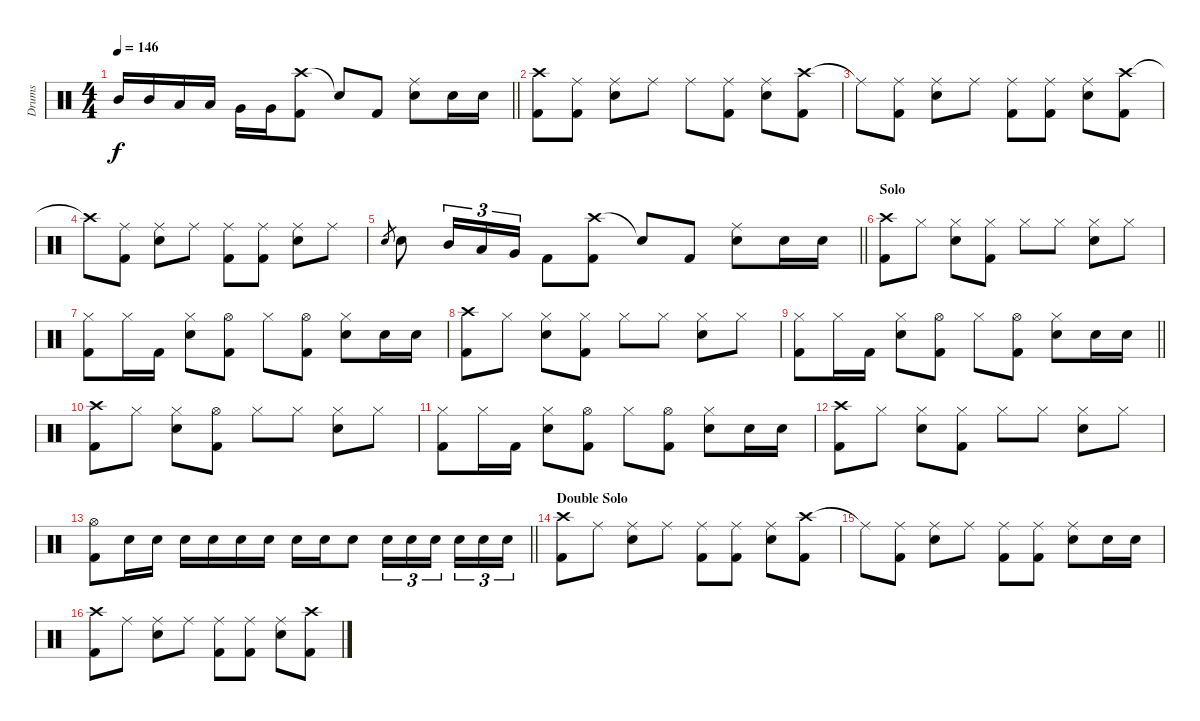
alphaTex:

\track ("Drums" "Drums") {instrument percussion}
\staff {score}
\articulation defaults
\ts (4 4)
\tempo 146
\clef neutral
\barLineRight lightlight
\ks c "Mid Tom (hit)".16{dy f} "Mid Tom (hit)".16 "Low Tom (hit)".16 "Low Tom (hit)".16 "Very Low Tom (hit)".16 "Very Low Tom (hit)".16
("Crash high (hit)" "Kick (hit) 2").8 "Snare (hit)"{t}.8 "Kick (hit) 2".8 ("Ride (middle)" "Snare (hit) 2").8 "Snare (hit) 2".16 "Snare (hit) 2".16 |
("Crash high (hit)" "Kick (hit) 2").8 ("Ride (middle)" "Kick (hit) 2").8 ("Ride (middle)" "Snare (hit) 2").8 "Ride (middle)".8 "Ride (middle)".8 ("Ride (middle)" "Kick (hit) 2").8 ("Ride (middle)" "Snare (hit) 2").8 ("Crash high (hit)" "Kick (hit) 2").8 |
"Ride (middle)"{t}.8 ("Ride (middle)" "Kick (hit) 2").8 ("Ride (middle)" "Snare (hit) 2").8 "Ride (middle)".8 ("Ride (middle)" "Kick (hit) 2").8 ("Ride (middle)" "Kick (hit) 2").8 ("Ride (middle)" "Snare (hit) 2").8 ("Crash high (hit)" "Kick (hit) 2").8 |
"Crash high (hit)"{t}.8 ("Ride (middle)" "Kick (hit) 2").8 ("Ride (middle)" "Snare (hit) 2").8 "Ride (middle)".8 ("Ride (middle)" "Kick (hit) 2").8 ("Ride (middle)" "Kick (hit) 2").8 ("Ride (middle)" "Snare (hit) 2").8 "Ride (middle)".8 |
\barLineRight lightlight "Snare (hit) 2".8{gr} "Snare (hit) 2".8 "Mid Tom (hit)".16{tu (3 2)} "Low Tom (hit)".16{tu (3 2)} "Very Low Tom (hit)".16{tu (3 2)} "Kick (hit) 2".8
("Crash high (hit)" "Kick (hit) 2").8 "Snare (hit)"{t}.8 "Kick (hit) 2".8 ("Ride (middle)" "Snare (hit) 2").8 "Snare (hit) 2".16 "Snare (hit) 2".16 |
\section ("" "Solo")
("Crash high (hit)" "Kick (hit) 2").8 "Hi-Hat (closed)".8 ("Hi-Hat (closed)" "Snare (hit) 2").8 ("Hi-Hat (closed)" "Kick (hit) 2").8 "Hi-Hat (closed)".8 "Hi-Hat (closed)".8 ("Hi-Hat (closed)" "Snare (hit) 2").8 "Hi-Hat (closed)".8 |
("Hi-Hat (closed)" "Kick (hit) 2").8 "Hi-Hat (closed)".16 "Kick (hit) 2".16 ("Hi-Hat (closed)" "Snare (hit) 2").8 ("Hi-Hat (open)" "Kick (hit) 2").8 "Hi-Hat (closed)".8 ("Hi-Hat (open)" "Kick (hit) 2").8 ("Hi-Hat (closed)" "Snare (hit) 2").8 "Snare (hit) 2".16 "Snare (hit) 2".16 |
("Crash high (hit)" "Kick (hit) 2").8 "Hi-Hat (closed)".8 ("Hi-Hat (closed)" "Snare (hit) 2").8 ("Hi-Hat (closed)" "Kick (hit) 2").8 "Hi-Hat (closed)".8 "Hi-Hat (closed)".8 ("Hi-Hat (closed)" "Snare (hit) 2").8 "Hi-Hat (closed)".8 |
\barLineRight lightlight
("Hi-Hat (closed)" "Kick (hit) 2").8 "Hi-Hat (closed)".16 "Kick (hit) 2".16 ("Hi-Hat (closed)" "Snare (hit) 2").8 ("Hi-Hat (open)" "Kick (hit) 2").8 "Hi-Hat (closed)".8 ("Hi-Hat (open)" "Kick (hit) 2").8 ("Hi-Hat (closed)" "Snare (hit) 2").8 "Snare (hit) 2".16 "Snare (hit) 2".16 |
("Crash high (hit)" "Kick (hit) 2").8 "Hi-Hat (closed)".8 ("Hi-Hat (closed)" "Snare (hit) 2").8 ("Hi-Hat (open)" "Kick (hit) 2").8 "Hi-Hat (closed)".8 "Hi-Hat (closed)".8 ("Hi-Hat (closed)" "Snare (hit) 2").8 "Hi-Hat (closed)".8 |
("Hi-Hat (closed)" "Kick (hit) 2").8 "Hi-Hat (closed)".16 "Kick (hit) 2".16 ("Hi-Hat (closed)" "Snare (hit) 2").8 ("Hi-Hat (open)" "Kick (hit) 2").8 "Hi-Hat (closed)".8 ("Hi-Hat (open)" "Kick (hit) 2").8 ("Hi-Hat (closed)" "Snare (hit) 2").8 "Snare (hit) 2".16 "Snare (hit) 2".16 |
("Crash high (hit)" "Kick (hit) 2").8 "Hi-Hat (closed)".8 ("Hi-Hat (closed)" "Snare (hit) 2").8 ("Hi-Hat (closed)" "Kick (hit) 2").8 "Hi-Hat (closed)".8 "Hi-Hat (closed)".8 ("Hi-Hat (closed)" "Snare (hit) 2").8 "Hi-Hat (closed)".8 |
\barLineRight lightlight
("Hi-Hat (open)" "Kick (hit) 2").8 "Snare (hit) 2".16 "Snare (hit) 2".16 "Snare (hit) 2".16 "Snare (hit) 2".16 "Snare (hit) 2".16 "Snare (hit) 2".16 "Snare (hit) 2".16 "Snare (hit) 2".16 "Snare (hit) 2".8 "Snare (hit) 2".16{tu (3 2)} "Snare (hit) 2".16{tu (3 2)} "Snare (hit) 2".16{tu (3 2) beam splitsecondary} "Snare (hit) 2".16{tu (3 2)} "Snare (hit) 2".16{tu (3 2)} "Snare (hit) 2".16{tu (3 2)} |
\section ("" "Double Solo")
("Crash high (hit)" "Kick (hit) 2").8 "Ride (middle)".8 ("Ride (middle)" "Snare (hit) 2").8 "Ride (middle)".8 ("Ride (middle)" "Kick (hit) 2").8 ("Ride (middle)" "Kick (hit) 2").8 ("Ride (middle)" "Snare (hit) 2").8 ("Crash high (hit)" "Kick (hit) 2").8 |
"Ride (middle)"{t}.8 ("Ride (middle)" "Kick (hit) 2").8 ("Ride (middle)" "Snare (hit) 2").8 "Ride (middle)".8 ("Ride (middle)" "Kick (hit) 2").8 ("Ride (middle)" "Kick (hit) 2").8 ("Ride (middle)" "Snare (hit) 2").8 "Snare (hit) 2".16 "Snare (hit) 2".16 |
("Crash high (hit)" "Kick (hit) 2").8 "Ride (middle)".8 ("Ride (middle)" "Snare (hit) 2").8 "Ride (middle)".8 ("Ride (middle)" "Kick (hit) 2").8 ("Ride (middle)" "Kick (hit) 2").8 ("Ride (middle)" "Snare (hit) 2").8 ("Crash high (hit)" "Kick (hit) 2").8
